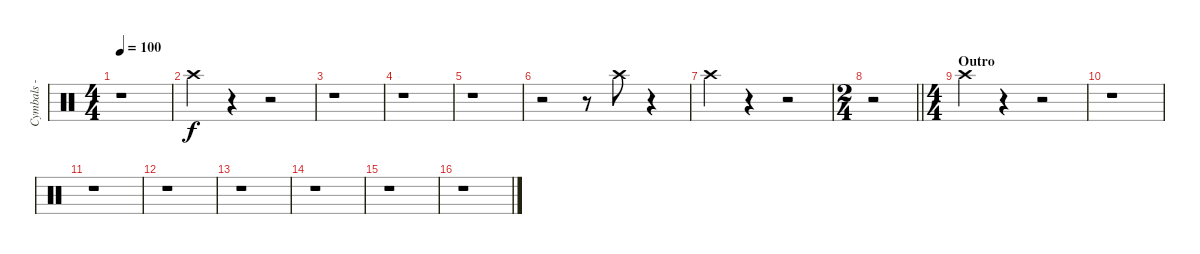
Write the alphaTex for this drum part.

\track ("Cymbals - crash" "Cymbals - ") {instrument percussion}
\staff {score}
\articulation defaults
\ts (4 4)
\tempo 100
\clef neutral
\ks c
r.1{dy f} |
"Crash high (hit)".4 r.4 r.2 |
r.1 |
r.1 |
r.1 |
\ks aminor
r.2 r.8 "Crash high (hit)".8{volume 0} r.4 |
"Crash high (hit)".4{volume 10} r.4 r.2 |
\ts (2 4)
\barLineRight lightlight
r.2 |
\ts (4 4)
\section ("" "Outro")
"Crash high (hit)".4 r.4 r.2 |
r.1 |
r.1 |
r.1 |
r.1 |
r.1 |
r.1 |
r.1
